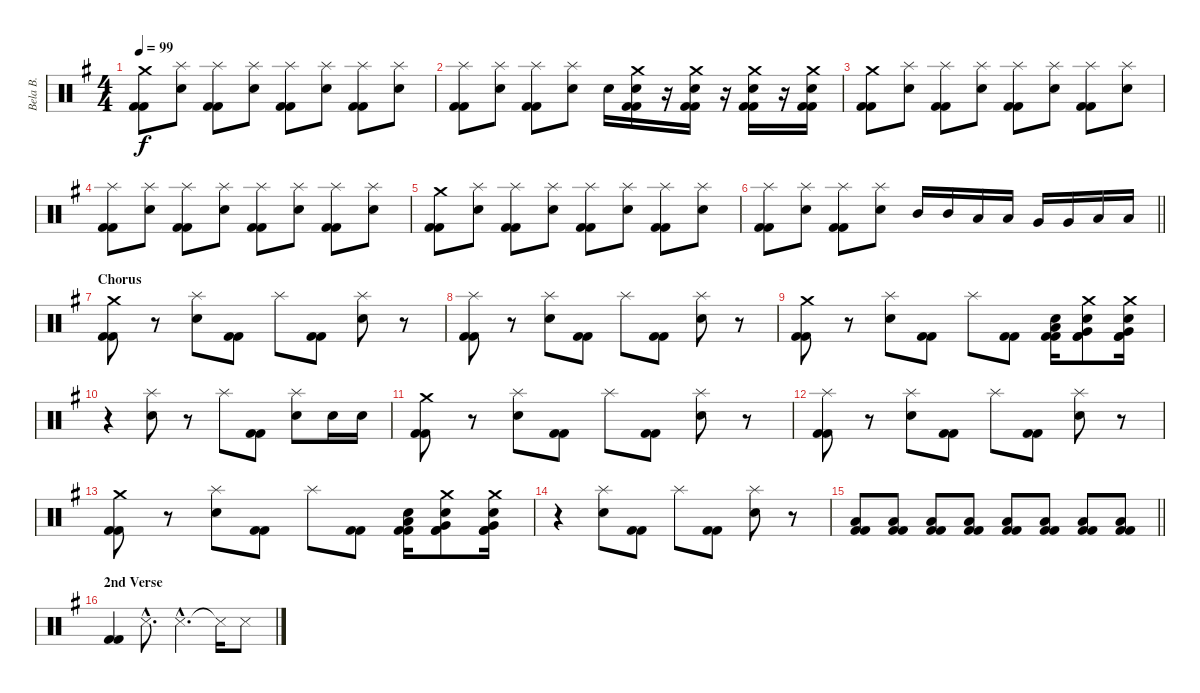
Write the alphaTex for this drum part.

\track ("Bela B." "Bela B.") {instrument percussion}
\staff {score}
\articulation defaults
\ts (4 4)
\tempo 99
\clef neutral
\ks g
("Crash medium (hit)" "Kick (hit) 2" "Kick (hit) 2").8{dy f} ("Splash (hit)" "Electric Snare (hit)").8 ("Splash (hit)" "Kick (hit) 2" "Kick (hit) 2").8 ("Splash (hit)" "Electric Snare (hit)").8 ("Splash (hit)" "Kick (hit) 2" "Kick (hit) 2").8 ("Splash (hit)" "Electric Snare (hit)").8 ("Splash (hit)" "Kick (hit) 2" "Kick (hit) 2").8 ("Splash (hit)" "Electric Snare (hit)").8 |
("Splash (hit)" "Kick (hit) 2" "Kick (hit) 2").8 ("Splash (hit)" "Electric Snare (hit)").8 ("Splash (hit)" "Kick (hit) 2" "Kick (hit) 2").8 ("Splash (hit)" "Electric Snare (hit)").8 "Electric Snare (hit)".16 ("Crash medium (hit)" "Electric Snare (hit)" "Kick (hit) 2" "Kick (hit) 2").16 r.16 ("Crash medium (hit)" "Electric Snare (hit)" "Kick (hit) 2" "Kick (hit) 2").16 r.16 ("Crash medium (hit)" "Electric Snare (hit)" "Kick (hit) 2" "Kick (hit) 2").16 r.16 ("Crash medium (hit)" "Electric Snare (hit)" "Kick (hit) 2" "Kick (hit) 2").16 |
("Crash medium (hit)" "Kick (hit) 2" "Kick (hit) 2").8 ("Splash (hit)" "Electric Snare (hit)").8 ("Splash (hit)" "Kick (hit) 2" "Kick (hit) 2").8 ("Splash (hit)" "Electric Snare (hit)").8 ("Splash (hit)" "Kick (hit) 2" "Kick (hit) 2").8 ("Splash (hit)" "Electric Snare (hit)").8 ("Splash (hit)" "Kick (hit) 2" "Kick (hit) 2").8 ("Splash (hit)" "Electric Snare (hit)").8 |
("Splash (hit)" "Kick (hit) 2" "Kick (hit) 2").8 ("Splash (hit)" "Electric Snare (hit)").8 ("Splash (hit)" "Kick (hit) 2" "Kick (hit) 2").8 ("Splash (hit)" "Electric Snare (hit)").8 ("Splash (hit)" "Kick (hit) 2" "Kick (hit) 2").8 ("Splash (hit)" "Electric Snare (hit)").8 ("Splash (hit)" "Kick (hit) 2" "Kick (hit) 2").8 ("Splash (hit)" "Electric Snare (hit)").8 |
("Crash medium (hit)" "Kick (hit) 2" "Kick (hit) 2").8 ("Splash (hit)" "Electric Snare (hit)").8 ("Splash (hit)" "Kick (hit) 2" "Kick (hit) 2").8 ("Splash (hit)" "Electric Snare (hit)").8 ("Splash (hit)" "Kick (hit) 2" "Kick (hit) 2").8 ("Splash (hit)" "Electric Snare (hit)").8 ("Splash (hit)" "Kick (hit) 2" "Kick (hit) 2").8 ("Splash (hit)" "Electric Snare (hit)").8 |
\barLineRight lightlight
("Splash (hit)" "Kick (hit) 2" "Kick (hit) 2").8 ("Splash (hit)" "Electric Snare (hit)").8 ("Splash (hit)" "Kick (hit) 2" "Kick (hit) 2").8 ("Splash (hit)" "Electric Snare (hit)").8 "Mid Tom (hit)".16 "Mid Tom (hit)".16 "Low Tom (hit)".16 "Low Tom (hit)".16 "Very Low Tom (hit)".16 "Very Low Tom (hit)".16 "Low Floor Tom (hit)".16 "Low Floor Tom (hit)".16 |
\section ("" "Chorus")
("Crash medium (hit)" "Kick (hit) 2" "Kick (hit) 2").8 r.8 ("Splash (hit)" "Snare (hit) 2").8 ("Kick (hit) 2" "Kick (hit) 2").8 "Splash (hit)".8 ("Kick (hit) 2" "Kick (hit) 2").8 ("Splash (hit)" "Snare (hit) 2").8 r.8 |
("Splash (hit)" "Kick (hit) 2" "Kick (hit) 2").8 r.8 ("Splash (hit)" "Snare (hit) 2").8 ("Kick (hit) 2" "Kick (hit) 2").8 "Splash (hit)".8 ("Kick (hit) 2" "Kick (hit) 2").8 ("Splash (hit)" "Snare (hit) 2").8 r.8 |
("Crash medium (hit)" "Kick (hit) 2" "Kick (hit) 2").8 r.8 ("Splash (hit)" "Snare (hit) 2").8 ("Kick (hit) 2" "Kick (hit) 2").8 "Splash (hit)".8 ("Kick (hit) 2" "Kick (hit) 2").8 ("Low Floor Tom (hit)" "Electric Snare (hit)" "Kick (hit) 2" "Kick (hit) 2").16 ("Crash medium (hit)" "Very Low Tom (hit)" "Electric Snare (hit)" "Kick (hit) 2" "Kick (hit) 2").8 ("Crash medium (hit)" "Very Low Tom (hit)" "Electric Snare (hit)" "Kick (hit) 2" "Kick (hit) 2").16 |
r.4 ("Splash (hit)" "Snare (hit) 2").8 r.8 "Splash (hit)".8 ("Kick (hit) 2" "Kick (hit) 2").8 ("Splash (hit)" "Snare (hit) 2").8 "Snare (hit) 2".16 "Snare (hit) 2".16 |
("Crash medium (hit)" "Kick (hit) 2" "Kick (hit) 2").8 r.8 ("Splash (hit)" "Snare (hit) 2").8 ("Kick (hit) 2" "Kick (hit) 2").8 "Splash (hit)".8 ("Kick (hit) 2" "Kick (hit) 2").8 ("Splash (hit)" "Snare (hit) 2").8 r.8 |
("Splash (hit)" "Kick (hit) 2" "Kick (hit) 2").8 r.8 ("Splash (hit)" "Snare (hit) 2").8 ("Kick (hit) 2" "Kick (hit) 2").8 "Splash (hit)".8 ("Kick (hit) 2" "Kick (hit) 2").8 ("Splash (hit)" "Snare (hit) 2").8 r.8 |
("Crash medium (hit)" "Kick (hit) 2" "Kick (hit) 2").8 r.8 ("Splash (hit)" "Snare (hit) 2").8 ("Kick (hit) 2" "Kick (hit) 2").8 "Splash (hit)".8 ("Kick (hit) 2" "Kick (hit) 2").8 ("Low Floor Tom (hit)" "Electric Snare (hit)" "Kick (hit) 2" "Kick (hit) 2").16 ("Crash medium (hit)" "Very Low Tom (hit)" "Electric Snare (hit)" "Kick (hit) 2" "Kick (hit) 2").8 ("Crash medium (hit)" "Very Low Tom (hit)" "Electric Snare (hit)" "Kick (hit) 2" "Kick (hit) 2").16 |
r.4 ("Splash (hit)" "Snare (hit) 2").8 ("Kick (hit) 2" "Kick (hit) 2").8 "Splash (hit)".8 ("Kick (hit) 2" "Kick (hit) 2").8 ("Splash (hit)" "Snare (hit) 2").8 r.8 |
\barLineRight lightlight
("Low Floor Tom (hit)" "Kick (hit) 2" "Kick (hit) 2").8 ("Low Floor Tom (hit)" "Kick (hit) 2" "Kick (hit) 2").8 ("Low Floor Tom (hit)" "Kick (hit) 2" "Kick (hit) 2").8 ("Low Floor Tom (hit)" "Kick (hit) 2" "Kick (hit) 2").8 ("Low Floor Tom (hit)" "Kick (hit) 2" "Kick (hit) 2").8 ("Low Floor Tom (hit)" "Kick (hit) 2" "Kick (hit) 2").8 ("Low Floor Tom (hit)" "Kick (hit) 2" "Kick (hit) 2").8 ("Low Floor Tom (hit)" "Kick (hit) 2" "Kick (hit) 2").8 |
\section ("" "2nd Verse")
("Kick (hit) 2" "Kick (hit) 2").4 "Snare (side stick) 3"{hac}.8{d} "Snare (side stick) 3"{hac}.4{d} "Snare (side stick) 3"{t}.16 "Snare (side stick) 3".8
